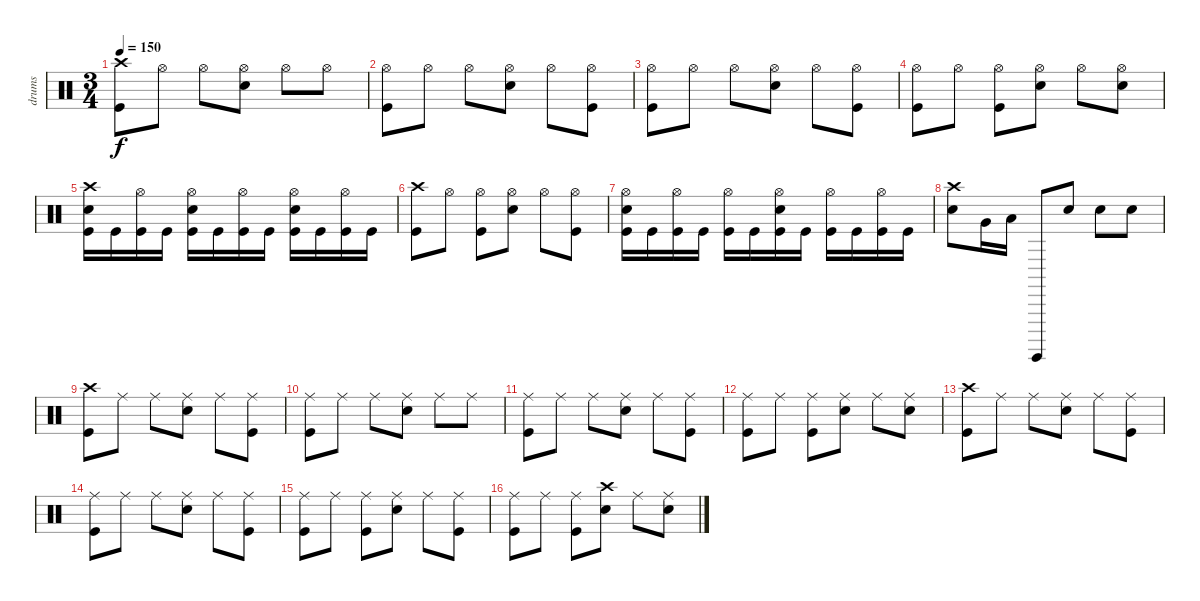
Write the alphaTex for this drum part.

\track ("drums" "drums") {instrument percussion}
\staff {score}
\articulation defaults
\ts (3 4)
\tempo 150
\clef neutral
\ks c
("Crash high (hit)" "Kick (hit)").8{dy f} "Hi-Hat (open)".8 "Hi-Hat (open)".8 ("Hi-Hat (open)" "Snare (hit) 2").8 "Hi-Hat (open)".8 "Hi-Hat (open)".8 |
("Hi-Hat (open)" "Kick (hit)").8 "Hi-Hat (open)".8 "Hi-Hat (open)".8 ("Hi-Hat (open)" "Snare (hit) 2").8 "Hi-Hat (open)".8 ("Hi-Hat (open)" "Kick (hit)").8 |
("Hi-Hat (open)" "Kick (hit)").8 "Hi-Hat (open)".8 "Hi-Hat (open)".8 ("Hi-Hat (open)" "Snare (hit) 2").8 "Hi-Hat (open)".8 ("Hi-Hat (open)" "Kick (hit)").8 |
("Hi-Hat (open)" "Kick (hit)").8 "Hi-Hat (open)".8 ("Hi-Hat (open)" "Kick (hit)").8 ("Hi-Hat (open)" "Snare (hit) 2").8 "Hi-Hat (open)".8 ("Hi-Hat (open)" "Snare (hit) 2").8 |
("Crash high (hit)" "Snare (hit) 2" "Kick (hit)").16 "Kick (hit)".16 ("Hi-Hat (open)" "Kick (hit)").16 "Kick (hit)".16 ("Hi-Hat (open)" "Snare (hit) 2" "Kick (hit)").16 "Kick (hit)".16 ("Hi-Hat (open)" "Kick (hit)").16 "Kick (hit)".16 ("Hi-Hat (open)" "Snare (hit) 2" "Kick (hit)").16 "Kick (hit)".16 ("Hi-Hat (open)" "Kick (hit)").16 "Kick (hit)".16 |
("Crash high (hit)" "Kick (hit)").8 "Hi-Hat (open)".8 ("Hi-Hat (open)" "Kick (hit)").8 ("Hi-Hat (open)" "Snare (hit) 2").8 "Hi-Hat (open)".8 ("Hi-Hat (open)" "Kick (hit)").8 |
("Hi-Hat (open)" "Snare (hit) 2" "Kick (hit)").16 "Kick (hit)".16 ("Hi-Hat (open)" "Kick (hit)").16 "Kick (hit)".16 ("Hi-Hat (open)" "Kick (hit)").16 "Kick (hit)".16 ("Hi-Hat (open)" "Snare (hit) 2" "Kick (hit)").16 "Kick (hit)".16 ("Hi-Hat (open)" "Kick (hit)").16 "Kick (hit)".16 ("Hi-Hat (open)" "Kick (hit)").16 "Kick (hit)".16 |
("Crash high (hit)" "Snare (hit) 2").8 "Very Low Tom (hit)".16 "Low Floor Tom (hit)".16 "Surdo (hit)".8 "Snare (hit) 2".8 "Snare (hit) 2".8 "Snare (hit) 2".8 |
("Crash high (hit)" "Kick (hit)").8 "Ride (middle)".8 "Ride (middle)".8 ("Ride (middle)" "Snare (hit) 2").8 "Ride (middle)".8 ("Ride (middle)" "Kick (hit)").8 |
("Ride (middle)" "Kick (hit)").8 "Ride (middle)".8 "Ride (middle)".8 ("Ride (middle)" "Snare (hit) 2").8 "Ride (middle)".8 "Ride (middle)".8 |
("Ride (middle)" "Kick (hit)").8 "Ride (middle)".8 "Ride (middle)".8 ("Ride (middle)" "Snare (hit) 2").8 "Ride (middle)".8 ("Ride (middle)" "Kick (hit)").8 |
("Ride (middle)" "Kick (hit)").8 "Ride (middle)".8 ("Ride (middle)" "Kick (hit)").8 ("Ride (middle)" "Snare (hit) 2").8 "Ride (middle)".8 ("Ride (middle)" "Snare (hit) 2").8 |
("Crash high (hit)" "Kick (hit)").8 "Ride (middle)".8 "Ride (middle)".8 ("Ride (middle)" "Snare (hit) 2").8 "Ride (middle)".8 ("Ride (middle)" "Kick (hit)").8 |
("Ride (middle)" "Kick (hit)").8 "Ride (middle)".8 "Ride (middle)".8 ("Ride (middle)" "Snare (hit) 2").8 "Ride (middle)".8 ("Ride (middle)" "Kick (hit)").8 |
("Ride (middle)" "Kick (hit)").8 "Ride (middle)".8 ("Ride (middle)" "Kick (hit)").8 ("Ride (middle)" "Snare (hit) 2").8 "Ride (middle)".8 ("Ride (middle)" "Kick (hit)").8 |
("Ride (middle)" "Kick (hit)").8 "Ride (middle)".8 ("Ride (middle)" "Kick (hit)").8 ("Crash high (hit)" "Snare (hit) 2").8 "Ride (middle)".8 ("Ride (middle)" "Snare (hit) 2").8
